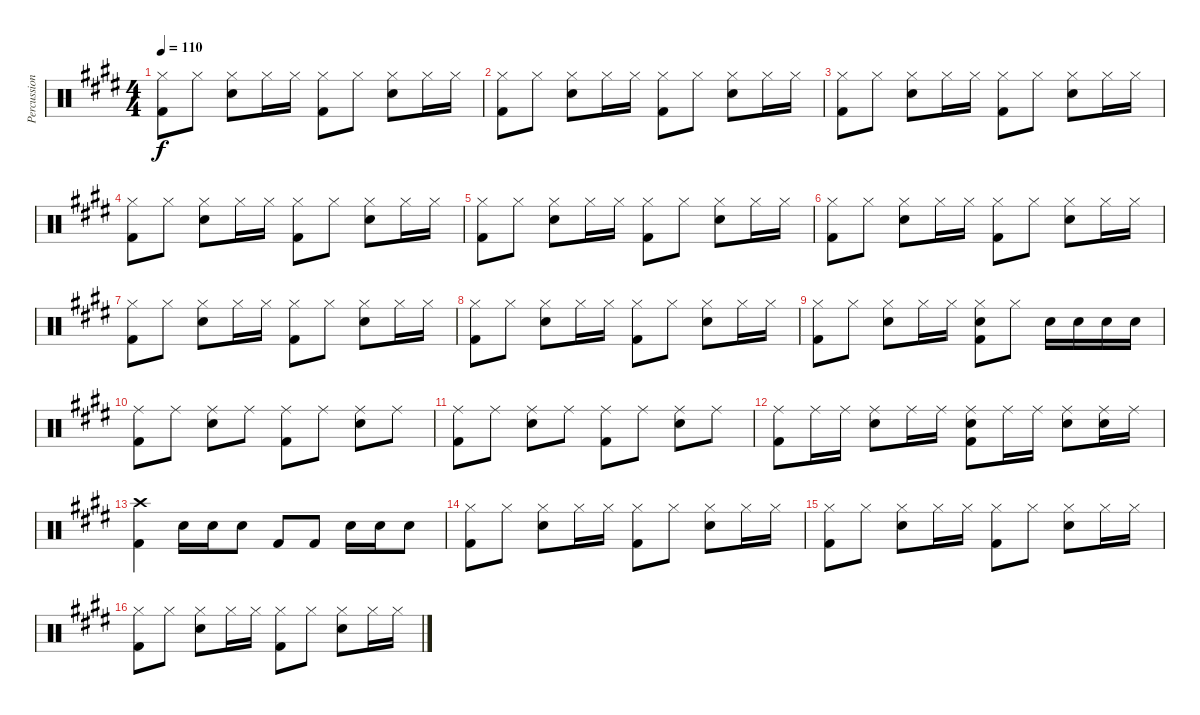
\track ("Percussion" "Percussion") {instrument percussion}
\staff {score}
\articulation defaults
\ts (4 4)
\tempo 110
\clef neutral
\ks e
("Hi-Hat (closed)" "Kick (hit) 2").8{dy f} "Hi-Hat (closed)".8 ("Hi-Hat (closed)" "Snare (hit) 2").8 "Hi-Hat (closed)".16 "Hi-Hat (closed)".16 ("Hi-Hat (closed)" "Kick (hit) 2").8 "Hi-Hat (closed)".8 ("Hi-Hat (closed)" "Snare (hit) 2").8 "Hi-Hat (closed)".16 "Hi-Hat (closed)".16 |
("Hi-Hat (closed)" "Kick (hit) 2").8 "Hi-Hat (closed)".8 ("Hi-Hat (closed)" "Snare (hit) 2").8 "Hi-Hat (closed)".16 "Hi-Hat (closed)".16 ("Hi-Hat (closed)" "Kick (hit) 2").8 "Hi-Hat (closed)".8 ("Hi-Hat (closed)" "Snare (hit) 2").8 "Hi-Hat (closed)".16 "Hi-Hat (closed)".16 |
("Hi-Hat (closed)" "Kick (hit) 2").8 "Hi-Hat (closed)".8 ("Hi-Hat (closed)" "Snare (hit) 2").8 "Hi-Hat (closed)".16 "Hi-Hat (closed)".16 ("Hi-Hat (closed)" "Kick (hit) 2").8 "Hi-Hat (closed)".8 ("Hi-Hat (closed)" "Snare (hit) 2").8 "Hi-Hat (closed)".16 "Hi-Hat (closed)".16 |
("Hi-Hat (closed)" "Kick (hit) 2").8 "Hi-Hat (closed)".8 ("Hi-Hat (closed)" "Snare (hit) 2").8 "Hi-Hat (closed)".16 "Hi-Hat (closed)".16 ("Hi-Hat (closed)" "Kick (hit) 2").8 "Hi-Hat (closed)".8 ("Hi-Hat (closed)" "Snare (hit) 2").8 "Hi-Hat (closed)".16 "Hi-Hat (closed)".16 |
("Hi-Hat (closed)" "Kick (hit) 2").8 "Hi-Hat (closed)".8 ("Hi-Hat (closed)" "Snare (hit) 2").8 "Hi-Hat (closed)".16 "Hi-Hat (closed)".16 ("Hi-Hat (closed)" "Kick (hit) 2").8 "Hi-Hat (closed)".8 ("Hi-Hat (closed)" "Snare (hit) 2").8 "Hi-Hat (closed)".16 "Hi-Hat (closed)".16 |
("Hi-Hat (closed)" "Kick (hit) 2").8 "Hi-Hat (closed)".8 ("Hi-Hat (closed)" "Snare (hit) 2").8 "Hi-Hat (closed)".16 "Hi-Hat (closed)".16 ("Hi-Hat (closed)" "Kick (hit) 2").8 "Hi-Hat (closed)".8 ("Hi-Hat (closed)" "Snare (hit) 2").8 "Hi-Hat (closed)".16 "Hi-Hat (closed)".16 |
("Hi-Hat (closed)" "Kick (hit) 2").8 "Hi-Hat (closed)".8 ("Hi-Hat (closed)" "Snare (hit) 2").8 "Hi-Hat (closed)".16 "Hi-Hat (closed)".16 ("Hi-Hat (closed)" "Kick (hit) 2").8 "Hi-Hat (closed)".8 ("Hi-Hat (closed)" "Snare (hit) 2").8 "Hi-Hat (closed)".16 "Hi-Hat (closed)".16 |
("Hi-Hat (closed)" "Kick (hit) 2").8 "Hi-Hat (closed)".8 ("Hi-Hat (closed)" "Snare (hit) 2").8 "Hi-Hat (closed)".16 "Hi-Hat (closed)".16 ("Hi-Hat (closed)" "Kick (hit) 2").8 "Hi-Hat (closed)".8 ("Hi-Hat (closed)" "Snare (hit) 2").8 "Hi-Hat (closed)".16 "Hi-Hat (closed)".16 |
("Hi-Hat (closed)" "Kick (hit) 2").8 "Hi-Hat (closed)".8 ("Hi-Hat (closed)" "Snare (hit) 2").8 "Hi-Hat (closed)".16 "Hi-Hat (closed)".16 ("Hi-Hat (closed)" "Snare (hit) 2" "Kick (hit) 2").8 "Hi-Hat (closed)".8 "Snare (hit) 2".16 "Snare (hit) 2".16 "Snare (hit) 2".16 "Snare (hit) 2".16 |
("Ride (middle)" "Kick (hit) 2").8 "Ride (middle)".8 ("Ride (middle)" "Snare (hit) 2").8 "Ride (middle)".8 ("Ride (middle)" "Kick (hit) 2").8 "Ride (middle)".8 ("Ride (middle)" "Snare (hit) 2").8 "Ride (middle)".8 |
("Ride (middle)" "Kick (hit) 2").8 "Ride (middle)".8 ("Ride (middle)" "Snare (hit) 2").8 "Ride (middle)".8 ("Ride (middle)" "Kick (hit) 2").8 "Ride (middle)".8 ("Ride (middle)" "Snare (hit) 2").8 "Ride (middle)".8 |
("Ride (middle)" "Kick (hit) 2").8 "Ride (middle)".16 "Ride (middle)".16 ("Ride (middle)" "Snare (hit) 2").8 "Ride (middle)".16 "Ride (middle)".16 ("Ride (middle)" "Snare (hit) 2" "Kick (hit) 2").8 "Ride (middle)".16 "Ride (middle)".16 ("Ride (middle)" "Snare (hit) 2").8 ("Ride (middle)" "Snare (hit) 2").16 "Ride (middle)".16 |
("Crash high (hit)" "Kick (hit) 2").4 "Snare (hit) 2".16 "Snare (hit) 2".16 "Snare (hit) 2".8 "Kick (hit) 2".8 "Kick (hit) 2".8 "Snare (hit) 2".16 "Snare (hit) 2".16 "Snare (hit) 2".8 |
("Hi-Hat (closed)" "Kick (hit) 2").8 "Hi-Hat (closed)".8 ("Hi-Hat (closed)" "Snare (hit) 2").8 "Hi-Hat (closed)".16 "Hi-Hat (closed)".16 ("Hi-Hat (closed)" "Kick (hit) 2").8 "Hi-Hat (closed)".8 ("Hi-Hat (closed)" "Snare (hit) 2").8 "Hi-Hat (closed)".16 "Hi-Hat (closed)".16 |
("Hi-Hat (closed)" "Kick (hit) 2").8 "Hi-Hat (closed)".8 ("Hi-Hat (closed)" "Snare (hit) 2").8 "Hi-Hat (closed)".16 "Hi-Hat (closed)".16 ("Hi-Hat (closed)" "Kick (hit) 2").8 "Hi-Hat (closed)".8 ("Hi-Hat (closed)" "Snare (hit) 2").8 "Hi-Hat (closed)".16 "Hi-Hat (closed)".16 |
("Hi-Hat (closed)" "Kick (hit) 2").8 "Hi-Hat (closed)".8 ("Hi-Hat (closed)" "Snare (hit) 2").8 "Hi-Hat (closed)".16 "Hi-Hat (closed)".16 ("Hi-Hat (closed)" "Kick (hit) 2").8 "Hi-Hat (closed)".8 ("Hi-Hat (closed)" "Snare (hit) 2").8 "Hi-Hat (closed)".16 "Hi-Hat (closed)".16
